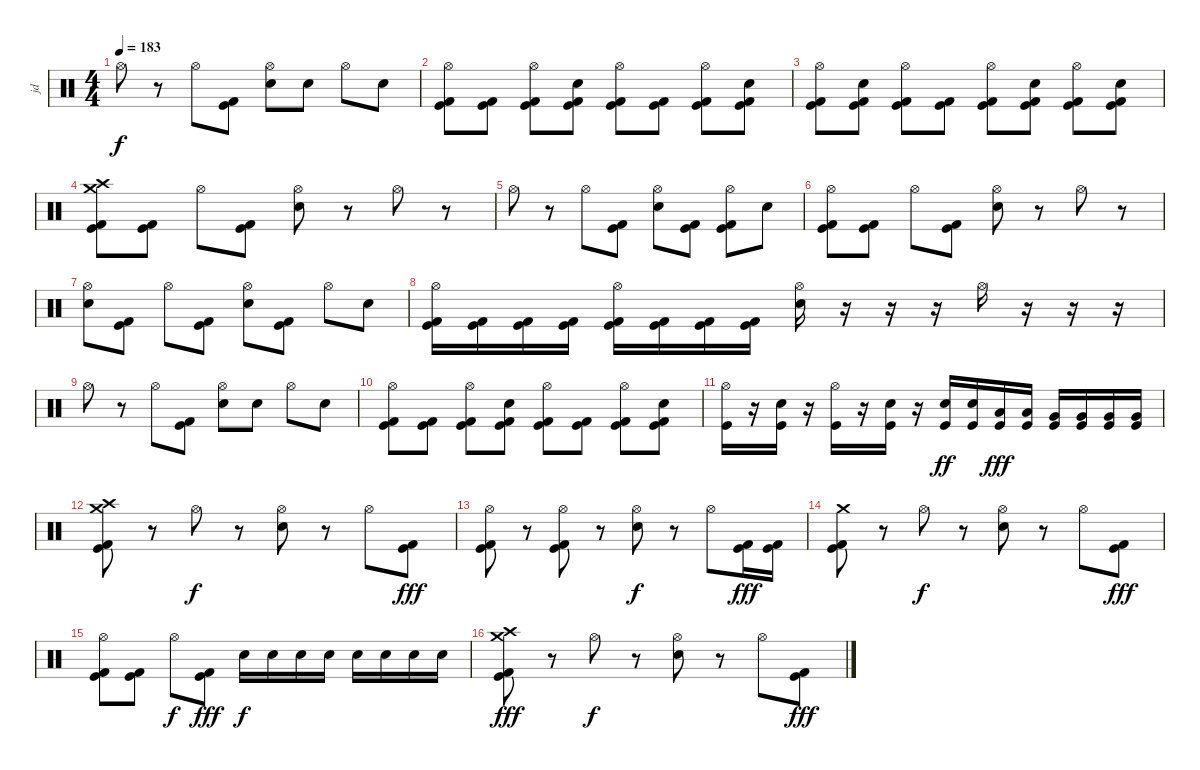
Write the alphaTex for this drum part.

\track ("jd" "jd") {instrument percussion}
\staff {score}
\articulation defaults
\ts (4 4)
\tempo 183
\clef neutral
\ks c "Hi-Hat (open)".8{dy f}
r.8 "Hi-Hat (open)".8 ("Kick (hit) 2" "Kick (hit)").8 ("Electric Snare (hit)" "Hi-Hat (open)").8 "Electric Snare (hit)".8 "Hi-Hat (open)".8 "Electric Snare (hit)".8 |
("Kick (hit) 2" "Kick (hit)" "Hi-Hat (open)").8 ("Kick (hit) 2" "Kick (hit)").8 ("Kick (hit) 2" "Kick (hit)" "Hi-Hat (open)").8 ("Kick (hit) 2" "Kick (hit)" "Electric Snare (hit)").8 ("Kick (hit) 2" "Kick (hit)" "Hi-Hat (open)").8 ("Kick (hit) 2" "Kick (hit)").8 ("Kick (hit) 2" "Kick (hit)" "Hi-Hat (open)").8 ("Kick (hit) 2" "Kick (hit)" "Electric Snare (hit)").8 |
("Kick (hit) 2" "Kick (hit)" "Hi-Hat (open)").8 ("Kick (hit) 2" "Kick (hit)" "Electric Snare (hit)").8 ("Kick (hit) 2" "Kick (hit)" "Hi-Hat (open)").8 ("Kick (hit) 2" "Kick (hit)").8 ("Kick (hit) 2" "Kick (hit)" "Hi-Hat (open)").8 ("Kick (hit) 2" "Kick (hit)" "Electric Snare (hit)").8 ("Kick (hit) 2" "Kick (hit)" "Hi-Hat (open)").8 ("Kick (hit) 2" "Kick (hit)" "Electric Snare (hit)").8 |
("Kick (hit) 2" "Kick (hit)" "Crash high (hit)" "Crash medium (hit)").8 ("Kick (hit) 2" "Kick (hit)").8 "Hi-Hat (open)".8 ("Kick (hit) 2" "Kick (hit)").8 ("Electric Snare (hit)" "Hi-Hat (open)").8 r.8 "Hi-Hat (open)".8 r.8 |
"Hi-Hat (open)".8 r.8 "Hi-Hat (open)".8 ("Kick (hit) 2" "Kick (hit)").8 ("Electric Snare (hit)" "Hi-Hat (open)").8 ("Kick (hit) 2" "Kick (hit)").8 ("Kick (hit) 2" "Kick (hit)" "Hi-Hat (open)").8 "Electric Snare (hit)".8 |
("Kick (hit) 2" "Kick (hit)" "Hi-Hat (open)").8 ("Kick (hit) 2" "Kick (hit)").8 "Hi-Hat (open)".8 ("Kick (hit) 2" "Kick (hit)").8 ("Electric Snare (hit)" "Hi-Hat (open)").8 r.8 "Hi-Hat (open)".8 r.8 |
("Electric Snare (hit)" "Hi-Hat (open)").8 ("Kick (hit) 2" "Kick (hit)").8 "Hi-Hat (open)".8 ("Kick (hit) 2" "Kick (hit)").8 ("Electric Snare (hit)" "Hi-Hat (open)").8 ("Kick (hit) 2" "Kick (hit)").8 "Hi-Hat (open)".8 "Electric Snare (hit)".8 |
("Kick (hit) 2" "Kick (hit)" "Hi-Hat (open)").16 ("Kick (hit) 2" "Kick (hit)").16 ("Kick (hit) 2" "Kick (hit)").16 ("Kick (hit) 2" "Kick (hit)").16 ("Kick (hit) 2" "Kick (hit)" "Hi-Hat (open)").16 ("Kick (hit) 2" "Kick (hit)").16 ("Kick (hit) 2" "Kick (hit)").16 ("Kick (hit) 2" "Kick (hit)").16 ("Electric Snare (hit)" "Hi-Hat (open)").16 r.16 r.16 r.16 "Hi-Hat (open)".16 r.16 r.16 r.16 |
"Hi-Hat (open)".8 r.8 "Hi-Hat (open)".8 ("Kick (hit) 2" "Kick (hit)").8 ("Electric Snare (hit)" "Hi-Hat (open)").8 "Electric Snare (hit)".8 "Hi-Hat (open)".8 "Electric Snare (hit)".8 |
("Kick (hit) 2" "Kick (hit)" "Hi-Hat (open)").8 ("Kick (hit) 2" "Kick (hit)").8 ("Kick (hit) 2" "Kick (hit)" "Hi-Hat (open)").8 ("Kick (hit) 2" "Kick (hit)" "Electric Snare (hit)").8 ("Kick (hit) 2" "Kick (hit)" "Hi-Hat (open)").8 ("Kick (hit) 2" "Kick (hit)").8 ("Kick (hit) 2" "Kick (hit)" "Hi-Hat (open)").8 ("Kick (hit) 2" "Kick (hit)" "Electric Snare (hit)").8 |
("Kick (hit)" "Hi-Hat (open)").16 r.16 ("Kick (hit)" "Electric Snare (hit)").16 r.16 ("Kick (hit)" "Hi-Hat (open)").16 r.16 ("Kick (hit)" "Electric Snare (hit)").16 r.16 ("Kick (hit)" "Electric Snare (hit)").16{dy ff} ("Kick (hit)" "Electric Snare (hit)").16 ("Kick (hit)" "Low Tom (hit)").16{dy fff} ("Kick (hit)" "Low Tom (hit)").16 ("Kick (hit)" "Very Low Tom (hit)").16 ("Kick (hit)" "Very Low Tom (hit)").16 ("Kick (hit)" "Very Low Tom (hit)").16 ("Kick (hit)" "Very Low Tom (hit)").16 |
("Kick (hit)" "Kick (hit) 2" "Crash high (hit)" "Crash medium (hit)").8 r.8 "Hi-Hat (open)".8{dy f} r.8 ("Electric Snare (hit)" "Hi-Hat (open)").8 r.8 "Hi-Hat (open)".8 ("Kick (hit)" "Kick (hit) 2").8{dy fff} |
("Kick (hit)" "Kick (hit) 2" "Hi-Hat (open)").8 r.8 ("Kick (hit)" "Kick (hit) 2" "Hi-Hat (open)").8 r.8 ("Electric Snare (hit)" "Hi-Hat (open)").8{dy f} r.8 "Hi-Hat (open)".8 ("Kick (hit)" "Kick (hit) 2").16{dy fff} ("Kick (hit)" "Kick (hit) 2").16 |
("Kick (hit)" "Kick (hit) 2" "Crash medium (hit)").8 r.8 "Hi-Hat (open)".8{dy f} r.8 ("Electric Snare (hit)" "Hi-Hat (open)").8 r.8 "Hi-Hat (open)".8 ("Kick (hit)" "Kick (hit) 2").8{dy fff} |
("Kick (hit)" "Kick (hit) 2" "Hi-Hat (open)").8 ("Kick (hit)" "Kick (hit) 2").8 "Hi-Hat (open)".8{dy f} ("Kick (hit)" "Kick (hit) 2").8{dy fff} "Electric Snare (hit)".16{dy f} "Electric Snare (hit)".16 "Electric Snare (hit)".16 "Electric Snare (hit)".16 "Electric Snare (hit)".16 "Electric Snare (hit)".16 "Electric Snare (hit)".16 "Electric Snare (hit)".16 |
("Kick (hit)" "Kick (hit) 2" "Crash high (hit)" "Crash medium (hit)").8{dy fff} r.8 "Hi-Hat (open)".8{dy f} r.8 ("Electric Snare (hit)" "Hi-Hat (open)").8 r.8 "Hi-Hat (open)".8 ("Kick (hit)" "Kick (hit) 2").8{dy fff}
